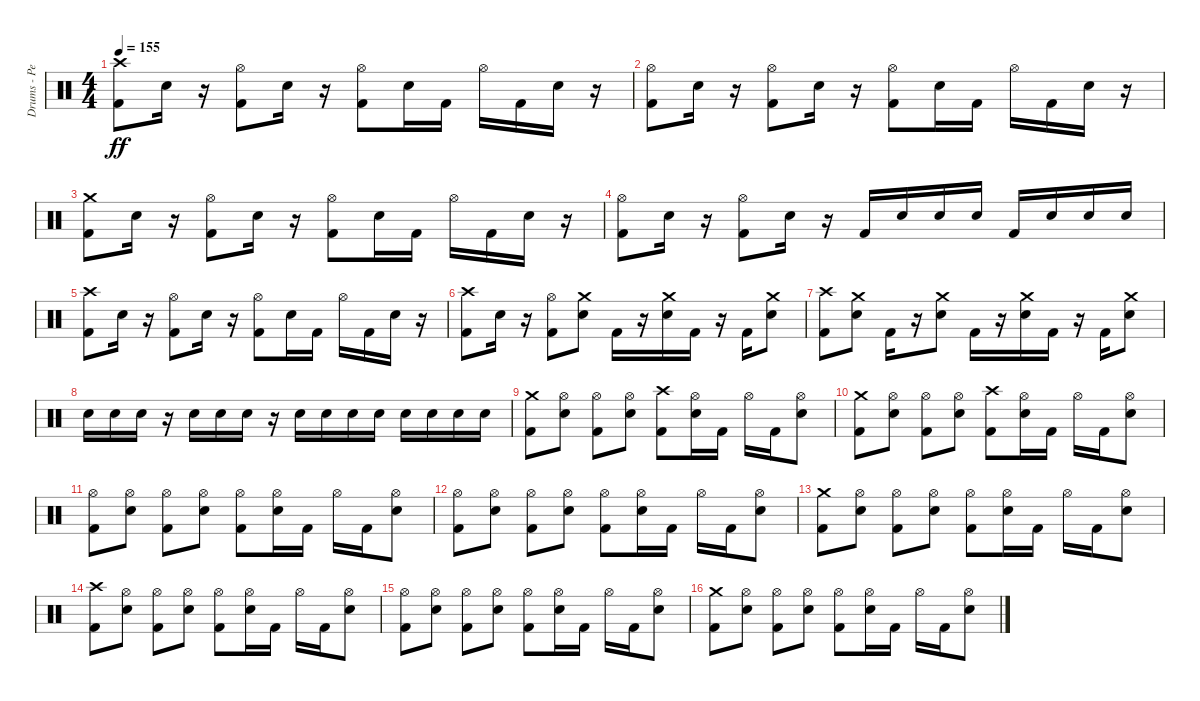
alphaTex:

\track ("Drums - Pete Finestone" "Drums - Pe") {instrument percussion}
\staff {score}
\articulation defaults
\ts (4 4)
\tempo 155
\clef neutral
\ks c
("Kick (hit) 2" "Crash high (hit)").8{dy ff} "Electric Snare (hit)".16 r.16 ("Kick (hit) 2" "Hi-Hat (open)").8 "Electric Snare (hit)".16 r.16 ("Kick (hit) 2" "Hi-Hat (open)").8 "Electric Snare (hit)".16 "Kick (hit) 2".16 "Hi-Hat (open)".16 "Kick (hit) 2".16 "Electric Snare (hit)".16 r.16 |
("Kick (hit) 2" "Hi-Hat (open)").8 "Electric Snare (hit)".16 r.16 ("Kick (hit) 2" "Hi-Hat (open)").8 "Electric Snare (hit)".16 r.16 ("Kick (hit) 2" "Hi-Hat (open)").8 "Electric Snare (hit)".16 "Kick (hit) 2".16 "Hi-Hat (open)".16 "Kick (hit) 2".16 "Electric Snare (hit)".16 r.16 |
("Kick (hit) 2" "Crash medium (hit)").8 "Electric Snare (hit)".16 r.16 ("Kick (hit) 2" "Hi-Hat (open)").8 "Electric Snare (hit)".16 r.16 ("Kick (hit) 2" "Hi-Hat (open)").8 "Electric Snare (hit)".16 "Kick (hit) 2".16 "Hi-Hat (open)".16 "Kick (hit) 2".16 "Electric Snare (hit)".16 r.16 |
("Kick (hit) 2" "Hi-Hat (open)").8 "Electric Snare (hit)".16 r.16 ("Kick (hit) 2" "Hi-Hat (open)").8 "Electric Snare (hit)".16 r.16 "Kick (hit) 2".16 "Electric Snare (hit)".16 "Electric Snare (hit)".16 "Electric Snare (hit)".16 "Kick (hit) 2".16 "Electric Snare (hit)".16 "Electric Snare (hit)".16 "Electric Snare (hit)".16 |
("Kick (hit) 2" "Crash high (hit)").8 "Electric Snare (hit)".16 r.16 ("Kick (hit) 2" "Hi-Hat (open)").8 "Electric Snare (hit)".16 r.16 ("Kick (hit) 2" "Hi-Hat (open)").8 "Electric Snare (hit)".16 "Kick (hit) 2".16 "Hi-Hat (open)".16 "Kick (hit) 2".16 "Electric Snare (hit)".16 r.16 |
("Kick (hit) 2" "Crash high (hit)").8 "Electric Snare (hit)".16 r.16 ("Kick (hit) 2" "Hi-Hat (open)").8 ("Electric Snare (hit)" "Crash medium (hit)").8 "Kick (hit) 2".16 r.16 ("Electric Snare (hit)" "Crash medium (hit)").16 "Kick (hit) 2".16 r.16 "Kick (hit) 2".16 ("Electric Snare (hit)" "Crash medium (hit)").8 |
("Kick (hit) 2" "Crash high (hit)").8 ("Electric Snare (hit)" "Crash medium (hit)").8 "Kick (hit) 2".16 r.16 ("Electric Snare (hit)" "Crash medium (hit)").8 "Kick (hit) 2".16 r.16 ("Electric Snare (hit)" "Crash medium (hit)").16 "Kick (hit) 2".16 r.16 "Kick (hit) 2".16 ("Electric Snare (hit)" "Crash medium (hit)").8 |
"Electric Snare (hit)".16 "Electric Snare (hit)".16 "Electric Snare (hit)".16 r.16 "Electric Snare (hit)".16 "Electric Snare (hit)".16 "Electric Snare (hit)".16 r.16 "Electric Snare (hit)".16 "Electric Snare (hit)".16 "Electric Snare (hit)".16 "Electric Snare (hit)".16 "Electric Snare (hit)".16 "Electric Snare (hit)".16 "Electric Snare (hit)".16 "Electric Snare (hit)".16 |
("Crash medium (hit)" "Kick (hit) 2").8 ("Hi-Hat (open)" "Electric Snare (hit)").8 ("Hi-Hat (open)" "Kick (hit) 2").8 ("Hi-Hat (open)" "Electric Snare (hit)").8 ("Crash high (hit)" "Kick (hit) 2").8 ("Hi-Hat (open)" "Electric Snare (hit)").16 "Kick (hit) 2".16 "Hi-Hat (open)".16 "Kick (hit) 2".16 ("Hi-Hat (open)" "Electric Snare (hit)").8 |
("Crash medium (hit)" "Kick (hit) 2").8 ("Hi-Hat (open)" "Electric Snare (hit)").8 ("Hi-Hat (open)" "Kick (hit) 2").8 ("Hi-Hat (open)" "Electric Snare (hit)").8 ("Crash high (hit)" "Kick (hit) 2").8 ("Hi-Hat (open)" "Electric Snare (hit)").16 "Kick (hit) 2".16 "Hi-Hat (open)".16 "Kick (hit) 2".16 ("Hi-Hat (open)" "Electric Snare (hit)").8 |
("Hi-Hat (open)" "Kick (hit) 2").8 ("Hi-Hat (open)" "Electric Snare (hit)").8 ("Hi-Hat (open)" "Kick (hit) 2").8 ("Hi-Hat (open)" "Electric Snare (hit)").8 ("Hi-Hat (open)" "Kick (hit) 2").8 ("Hi-Hat (open)" "Electric Snare (hit)").16 "Kick (hit) 2".16 "Hi-Hat (open)".16 "Kick (hit) 2".16 ("Hi-Hat (open)" "Electric Snare (hit)").8 |
("Hi-Hat (open)" "Kick (hit) 2").8 ("Hi-Hat (open)" "Electric Snare (hit)").8 ("Hi-Hat (open)" "Kick (hit) 2").8 ("Hi-Hat (open)" "Electric Snare (hit)").8 ("Hi-Hat (open)" "Kick (hit) 2").8 ("Hi-Hat (open)" "Electric Snare (hit)").16 "Kick (hit) 2".16 "Hi-Hat (open)".16 "Kick (hit) 2".16 ("Hi-Hat (open)" "Electric Snare (hit)").8 |
("Crash medium (hit)" "Kick (hit) 2").8 ("Electric Snare (hit)" "Hi-Hat (open)").8 ("Kick (hit) 2" "Hi-Hat (open)").8 ("Electric Snare (hit)" "Hi-Hat (open)").8 ("Kick (hit) 2" "Hi-Hat (open)").8 ("Electric Snare (hit)" "Hi-Hat (open)").16 "Kick (hit) 2".16 "Hi-Hat (open)".16 "Kick (hit) 2".16 ("Electric Snare (hit)" "Hi-Hat (open)").8 |
("Crash high (hit)" "Kick (hit) 2").8 ("Electric Snare (hit)" "Hi-Hat (open)").8 ("Kick (hit) 2" "Hi-Hat (open)").8 ("Electric Snare (hit)" "Hi-Hat (open)").8 ("Kick (hit) 2" "Hi-Hat (open)").8 ("Electric Snare (hit)" "Hi-Hat (open)").16 "Kick (hit) 2".16 "Hi-Hat (open)".16 "Kick (hit) 2".16 ("Electric Snare (hit)" "Hi-Hat (open)").8 |
("Hi-Hat (open)" "Kick (hit) 2").8 ("Electric Snare (hit)" "Hi-Hat (open)").8 ("Kick (hit) 2" "Hi-Hat (open)").8 ("Electric Snare (hit)" "Hi-Hat (open)").8 ("Kick (hit) 2" "Hi-Hat (open)").8 ("Electric Snare (hit)" "Hi-Hat (open)").16 "Kick (hit) 2".16 "Hi-Hat (open)".16 "Kick (hit) 2".16 ("Electric Snare (hit)" "Hi-Hat (open)").8 |
("Crash medium (hit)" "Kick (hit) 2").8 ("Electric Snare (hit)" "Hi-Hat (open)").8 ("Kick (hit) 2" "Hi-Hat (open)").8 ("Electric Snare (hit)" "Hi-Hat (open)").8 ("Kick (hit) 2" "Hi-Hat (open)").8 ("Electric Snare (hit)" "Hi-Hat (open)").16 "Kick (hit) 2".16 "Hi-Hat (open)".16 "Kick (hit) 2".16 ("Electric Snare (hit)" "Hi-Hat (open)").8
